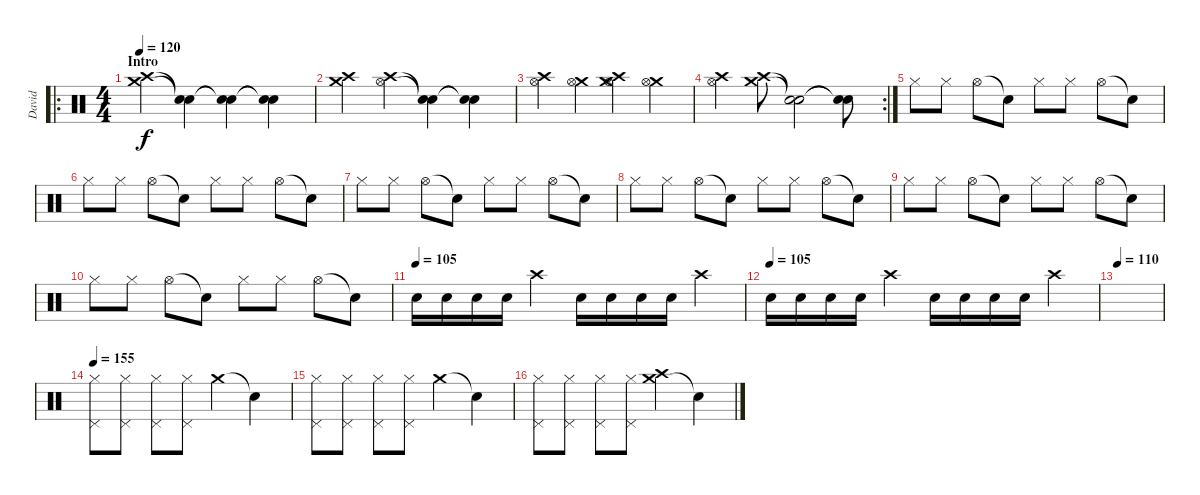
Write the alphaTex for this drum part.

\track ("David" "David") {instrument percussion}
\staff {score}
\articulation defaults
\ro
\ts (4 4)
\section ("" "Intro")
\tempo 120
\clef neutral
\ks c
("Crash medium (hit)" "Crash high (hit)").4{dy f} ("Snare (hit)"{t} "Snare (hit)"{t}).4 ("Snare (hit)"{t} "Snare (hit)"{t}).4 ("Snare (hit)"{t} "Snare (hit)"{t}).4 |
("Crash medium (hit)" "Crash high (hit)").4 ("Crash high (hit)" "Hi-Hat (open)").4 ("Snare (hit)"{t} "Snare (hit)"{t}).4 ("Snare (hit)"{t} "Snare (hit)"{t}).4 |
("Crash high (hit)" "Hi-Hat (open)").4 ("Crash medium (hit)" "Hi-Hat (open)").4 ("Crash medium (hit)" "Crash high (hit)" "Hi-Hat (open)").4 ("Crash medium (hit)" "Hi-Hat (open)").4 |
\rc 2
("Crash high (hit)" "Hi-Hat (open)").4 ("Crash medium (hit)" "Crash high (hit)").8 ("Snare (hit)"{t} "Snare (hit)"{t}).2 ("Snare (hit)"{t} "Snare (hit)"{t}).8 |
"Hi-Hat (closed)".8 "Hi-Hat (closed)".8 "Hi-Hat (open)".8 "Snare (hit)"{t}.8 "Hi-Hat (closed)".8 "Hi-Hat (closed)".8 "Hi-Hat (open)".8 "Snare (hit)"{t}.8 |
"Hi-Hat (closed)".8 "Hi-Hat (closed)".8 "Hi-Hat (open)".8 "Snare (hit)"{t}.8 "Hi-Hat (closed)".8 "Hi-Hat (closed)".8 "Hi-Hat (open)".8 "Snare (hit)"{t}.8 |
"Hi-Hat (closed)".8 "Hi-Hat (closed)".8 "Hi-Hat (open)".8 "Snare (hit)"{t}.8 "Hi-Hat (closed)".8 "Hi-Hat (closed)".8 "Hi-Hat (open)".8 "Snare (hit)"{t}.8 |
"Hi-Hat (closed)".8 "Hi-Hat (closed)".8 "Hi-Hat (open)".8 "Snare (hit)"{t}.8 "Hi-Hat (closed)".8 "Hi-Hat (closed)".8 "Hi-Hat (open)".8 "Snare (hit)"{t}.8 |
"Hi-Hat (closed)".8 "Hi-Hat (closed)".8 "Hi-Hat (open)".8 "Snare (hit)"{t}.8 "Hi-Hat (closed)".8 "Hi-Hat (closed)".8 "Hi-Hat (open)".8 "Snare (hit)"{t}.8 |
"Hi-Hat (closed)".8 "Hi-Hat (closed)".8 "Hi-Hat (open)".8 "Snare (hit)"{t}.8 "Hi-Hat (closed)".8 "Hi-Hat (closed)".8 "Hi-Hat (open)".8 "Snare (hit)"{t}.8 |
\tempo (105)
"Electric Snare (hit)".16 "Electric Snare (hit)".16 "Electric Snare (hit)".16 "Electric Snare (hit)".16 "Crash high (hit)".4 "Electric Snare (hit)".16 "Electric Snare (hit)".16 "Electric Snare (hit)".16 "Electric Snare (hit)".16 "Crash high (hit)".4 |
\tempo (105)
"Electric Snare (hit)".16 "Electric Snare (hit)".16 "Electric Snare (hit)".16 "Electric Snare (hit)".16 "Crash high (hit)".4 "Electric Snare (hit)".16 "Electric Snare (hit)".16 "Electric Snare (hit)".16 "Electric Snare (hit)".16 "Crash high (hit)".4 |
\tempo 110
|
\tempo 155
("Hi-Hat (closed)" "Pedal Hi-Hat (hit)").8 ("Hi-Hat (closed)" "Pedal Hi-Hat (hit)").8 ("Hi-Hat (closed)" "Pedal Hi-Hat (hit)").8 ("Hi-Hat (closed)" "Pedal Hi-Hat (hit)").8 "Crash medium (hit)".4 "Snare (hit)"{t}.4 |
("Hi-Hat (closed)" "Pedal Hi-Hat (hit)").8 ("Hi-Hat (closed)" "Pedal Hi-Hat (hit)").8 ("Hi-Hat (closed)" "Pedal Hi-Hat (hit)").8 ("Hi-Hat (closed)" "Pedal Hi-Hat (hit)").8 "Crash medium (hit)".4 "Snare (hit)"{t}.4 |
("Hi-Hat (closed)" "Pedal Hi-Hat (hit)").8 ("Hi-Hat (closed)" "Pedal Hi-Hat (hit)").8 ("Hi-Hat (closed)" "Pedal Hi-Hat (hit)").8 ("Hi-Hat (closed)" "Pedal Hi-Hat (hit)").8 ("Crash medium (hit)" "Crash high (hit)").4 "Snare (hit)"{t}.4
